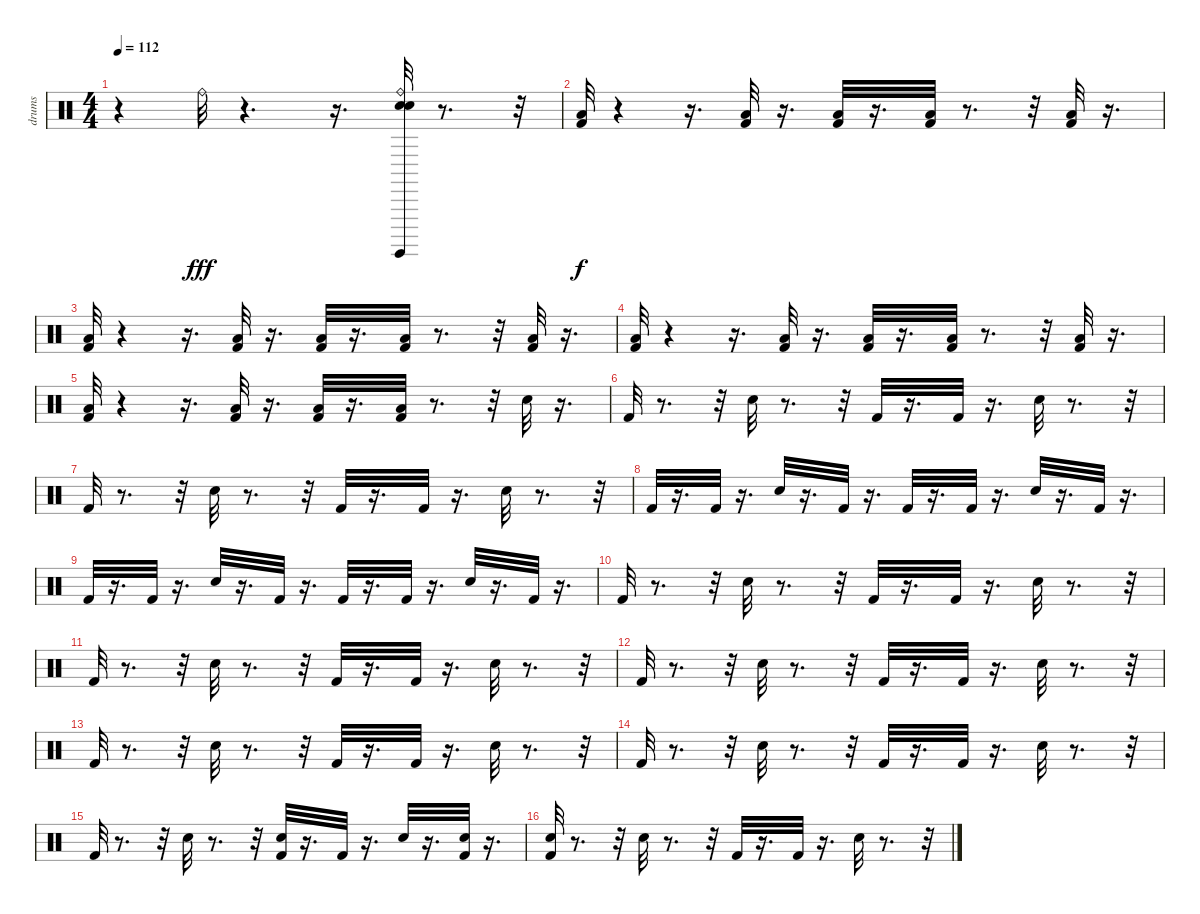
\track ("drums" "drums") {instrument percussion}
\staff {score}
\articulation defaults
\ts (4 4)
\tempo 112
\clef neutral
\ks c
r.4{dy fff} "Ride (bell)".32 r.4{d} r.16{d} ("Ride (bell)" "Snare (hit) 2" "Electric Snare (hit)" "Surdo (hit)").32 r.8{d} r.32 |
("Low Floor Tom (hit)" "Kick (hit) 2").32{dy f} r.4 r.16{d} ("Kick (hit) 2" "Low Floor Tom (hit)").32 r.16{d} ("Kick (hit) 2" "Low Floor Tom (hit)").32 r.16{d} ("Low Floor Tom (hit)" "Kick (hit) 2").32 r.8{d} r.32 ("Low Floor Tom (hit)" "Kick (hit) 2").32 r.16{d} |
("Low Floor Tom (hit)" "Kick (hit) 2").32 r.4 r.16{d} ("Kick (hit) 2" "Low Floor Tom (hit)").32 r.16{d} ("Kick (hit) 2" "Low Floor Tom (hit)").32 r.16{d} ("Low Floor Tom (hit)" "Kick (hit) 2").32 r.8{d} r.32 ("Low Floor Tom (hit)" "Kick (hit) 2").32 r.16{d} |
("Low Floor Tom (hit)" "Kick (hit) 2").32 r.4 r.16{d} ("Kick (hit) 2" "Low Floor Tom (hit)").32 r.16{d} ("Kick (hit) 2" "Low Floor Tom (hit)").32 r.16{d} ("Low Floor Tom (hit)" "Kick (hit) 2").32 r.8{d} r.32 ("Low Floor Tom (hit)" "Kick (hit) 2").32 r.16{d} |
("Low Floor Tom (hit)" "Kick (hit) 2").32 r.4 r.16{d} ("Kick (hit) 2" "Low Floor Tom (hit)").32 r.16{d} ("Kick (hit) 2" "Low Floor Tom (hit)").32 r.16{d} ("Low Floor Tom (hit)" "Kick (hit) 2").32 r.8{d} r.32 "Snare (hit) 2".32 r.16{d} |
"Kick (hit) 2".32 r.8{d} r.32 "Snare (hit) 2".32 r.8{d} r.32 "Kick (hit) 2".32 r.16{d} "Kick (hit) 2".32 r.16{d} "Snare (hit) 2".32 r.8{d} r.32 |
"Kick (hit) 2".32 r.8{d} r.32 "Snare (hit) 2".32 r.8{d} r.32 "Kick (hit) 2".32 r.16{d} "Kick (hit) 2".32 r.16{d} "Snare (hit) 2".32 r.8{d} r.32 |
"Kick (hit) 2".32 r.16{d} "Kick (hit) 2".32 r.16{d} "Snare (hit) 2".32 r.16{d} "Kick (hit) 2".32 r.16{d} "Kick (hit) 2".32 r.16{d} "Kick (hit) 2".32 r.16{d} "Snare (hit) 2".32 r.16{d} "Kick (hit) 2".32 r.16{d} |
"Kick (hit) 2".32 r.16{d} "Kick (hit) 2".32 r.16{d} "Snare (hit) 2".32 r.16{d} "Kick (hit) 2".32 r.16{d} "Kick (hit) 2".32 r.16{d} "Kick (hit) 2".32 r.16{d} "Snare (hit) 2".32 r.16{d} "Kick (hit) 2".32 r.16{d} |
"Kick (hit) 2".32 r.8{d} r.32 "Snare (hit) 2".32 r.8{d} r.32 "Kick (hit) 2".32 r.16{d} "Kick (hit) 2".32 r.16{d} "Snare (hit) 2".32 r.8{d} r.32 |
"Kick (hit) 2".32 r.8{d} r.32 "Snare (hit) 2".32 r.8{d} r.32 "Kick (hit) 2".32 r.16{d} "Kick (hit) 2".32 r.16{d} "Snare (hit) 2".32 r.8{d} r.32 |
"Kick (hit) 2".32 r.8{d} r.32 "Snare (hit) 2".32 r.8{d} r.32 "Kick (hit) 2".32 r.16{d} "Kick (hit) 2".32 r.16{d} "Snare (hit) 2".32 r.8{d} r.32 |
"Kick (hit) 2".32 r.8{d} r.32 "Snare (hit) 2".32 r.8{d} r.32 "Kick (hit) 2".32 r.16{d} "Kick (hit) 2".32 r.16{d} "Snare (hit) 2".32 r.8{d} r.32 |
"Kick (hit) 2".32 r.8{d} r.32 "Snare (hit) 2".32 r.8{d} r.32 "Kick (hit) 2".32 r.16{d} "Kick (hit) 2".32 r.16{d} "Snare (hit) 2".32 r.8{d} r.32 |
"Kick (hit) 2".32 r.8{d} r.32 "Snare (hit) 2".32 r.8{d} r.32 ("Snare (hit) 2" "Kick (hit) 2").32 r.16{d} "Kick (hit) 2".32 r.16{d} "Snare (hit) 2".32 r.16{d} ("Kick (hit) 2" "Snare (hit) 2").32 r.16{d} |
("Snare (hit) 2" "Kick (hit) 2").32 r.8{d} r.32 "Snare (hit) 2".32 r.8{d} r.32 "Kick (hit) 2".32 r.16{d} "Kick (hit) 2".32 r.16{d} "Snare (hit) 2".32 r.8{d} r.32
